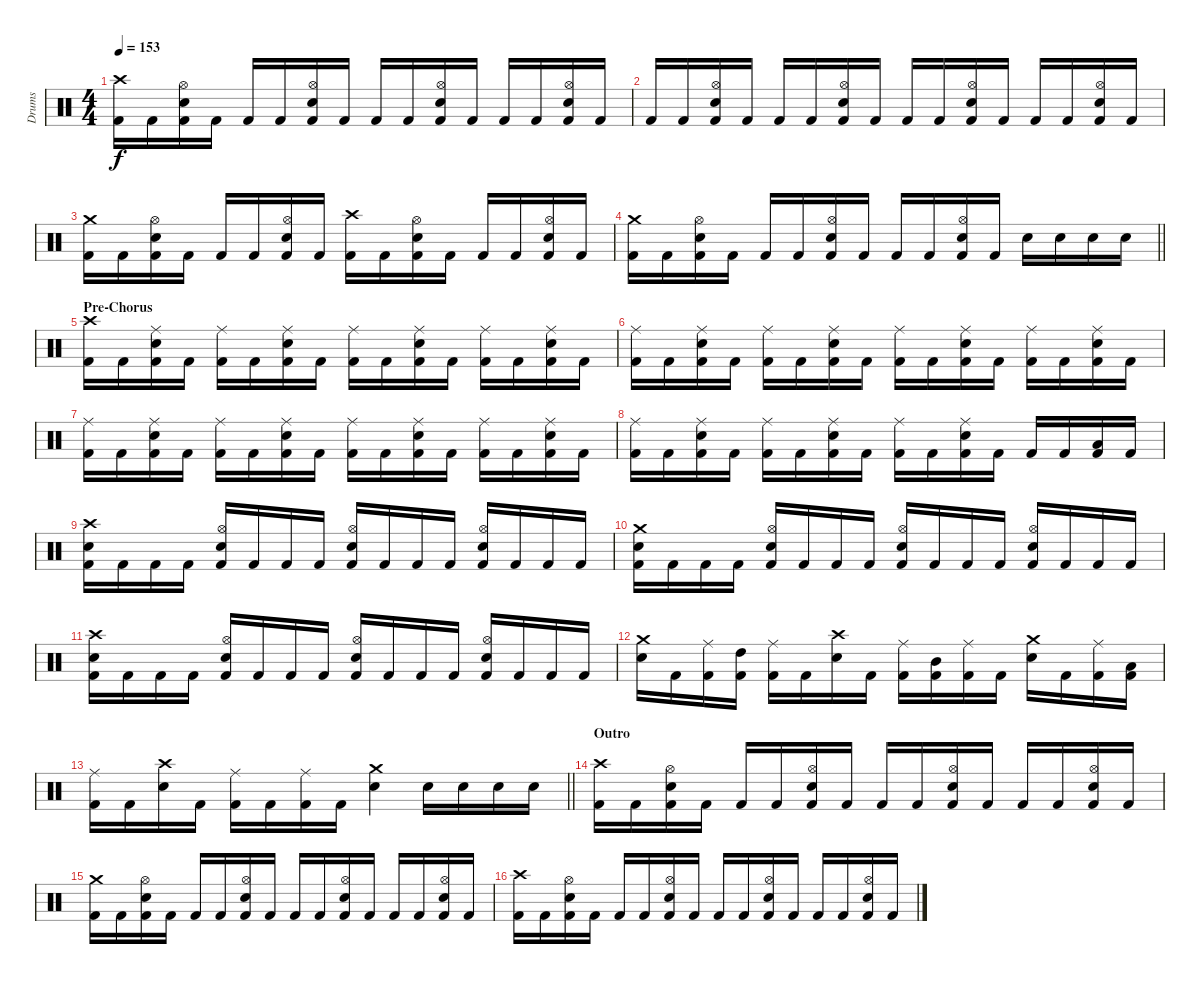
\track ("Drums" "Drums") {instrument percussion}
\staff {score}
\articulation defaults
\ts (4 4)
\tempo 153
\clef neutral
\ks c
("Crash high (hit)" "Kick (hit) 2").16{dy f} "Kick (hit) 2".16 ("Hi-Hat (open)" "Snare (hit) 2" "Kick (hit) 2").16 "Kick (hit) 2".16 "Kick (hit) 2".16 "Kick (hit) 2".16 ("Hi-Hat (open)" "Snare (hit) 2" "Kick (hit) 2").16 "Kick (hit) 2".16 "Kick (hit) 2".16 "Kick (hit) 2".16 ("Hi-Hat (open)" "Snare (hit) 2" "Kick (hit) 2").16 "Kick (hit) 2".16 "Kick (hit) 2".16 "Kick (hit) 2".16 ("Hi-Hat (open)" "Snare (hit) 2" "Kick (hit) 2").16 "Kick (hit) 2".16 |
"Kick (hit) 2".16 "Kick (hit) 2".16 ("Hi-Hat (open)" "Snare (hit) 2" "Kick (hit) 2").16 "Kick (hit) 2".16 "Kick (hit) 2".16 "Kick (hit) 2".16 ("Hi-Hat (open)" "Snare (hit) 2" "Kick (hit) 2").16 "Kick (hit) 2".16 "Kick (hit) 2".16 "Kick (hit) 2".16 ("Hi-Hat (open)" "Snare (hit) 2" "Kick (hit) 2").16 "Kick (hit) 2".16 "Kick (hit) 2".16 "Kick (hit) 2".16 ("Hi-Hat (open)" "Snare (hit) 2" "Kick (hit) 2").16 "Kick (hit) 2".16 |
("Crash medium (hit)" "Kick (hit) 2").16 "Kick (hit) 2".16 ("Hi-Hat (open)" "Snare (hit) 2" "Kick (hit) 2").16 "Kick (hit) 2".16 "Kick (hit) 2".16 "Kick (hit) 2".16 ("Hi-Hat (open)" "Snare (hit) 2" "Kick (hit) 2").16 "Kick (hit) 2".16 ("Crash high (hit)" "Kick (hit) 2").16 "Kick (hit) 2".16 ("Hi-Hat (open)" "Snare (hit) 2" "Kick (hit) 2").16 "Kick (hit) 2".16 "Kick (hit) 2".16 "Kick (hit) 2".16 ("Hi-Hat (open)" "Snare (hit) 2" "Kick (hit) 2").16 "Kick (hit) 2".16 |
\barLineRight lightlight
("Crash medium (hit)" "Kick (hit) 2").16 "Kick (hit) 2".16 ("Hi-Hat (open)" "Snare (hit) 2" "Kick (hit) 2").16 "Kick (hit) 2".16 "Kick (hit) 2".16 "Kick (hit) 2".16 ("Hi-Hat (open)" "Snare (hit) 2" "Kick (hit) 2").16 "Kick (hit) 2".16 "Kick (hit) 2".16 "Kick (hit) 2".16 ("Hi-Hat (open)" "Snare (hit) 2" "Kick (hit) 2").16 "Kick (hit) 2".16 "Snare (hit) 2".16 "Snare (hit) 2".16 "Snare (hit) 2".16 "Snare (hit) 2".16 |
\section ("" "Pre-Chorus")
("Crash high (hit)" "Kick (hit) 2").16 "Kick (hit) 2".16 ("Ride (middle)" "Snare (hit) 2" "Kick (hit) 2").16 "Kick (hit) 2".16 ("Ride (middle)" "Kick (hit) 2").16 "Kick (hit) 2".16 ("Ride (middle)" "Snare (hit) 2" "Kick (hit) 2").16 "Kick (hit) 2".16 ("Ride (middle)" "Kick (hit) 2").16 "Kick (hit) 2".16 ("Ride (middle)" "Snare (hit) 2" "Kick (hit) 2").16 "Kick (hit) 2".16 ("Ride (middle)" "Kick (hit) 2").16 "Kick (hit) 2".16 ("Ride (middle)" "Snare (hit) 2" "Kick (hit) 2").16 "Kick (hit) 2".16 |
("Ride (middle)" "Kick (hit) 2").16 "Kick (hit) 2".16 ("Ride (middle)" "Snare (hit) 2" "Kick (hit) 2").16 "Kick (hit) 2".16 ("Ride (middle)" "Kick (hit) 2").16 "Kick (hit) 2".16 ("Ride (middle)" "Snare (hit) 2" "Kick (hit) 2").16 "Kick (hit) 2".16 ("Ride (middle)" "Kick (hit) 2").16 "Kick (hit) 2".16 ("Ride (middle)" "Snare (hit) 2" "Kick (hit) 2").16 "Kick (hit) 2".16 ("Ride (middle)" "Kick (hit) 2").16 "Kick (hit) 2".16 ("Ride (middle)" "Snare (hit) 2" "Kick (hit) 2").16 "Kick (hit) 2".16 |
("Ride (middle)" "Kick (hit) 2").16 "Kick (hit) 2".16 ("Ride (middle)" "Snare (hit) 2" "Kick (hit) 2").16 "Kick (hit) 2".16 ("Ride (middle)" "Kick (hit) 2").16 "Kick (hit) 2".16 ("Ride (middle)" "Snare (hit) 2" "Kick (hit) 2").16 "Kick (hit) 2".16 ("Ride (middle)" "Kick (hit) 2").16 "Kick (hit) 2".16 ("Ride (middle)" "Snare (hit) 2" "Kick (hit) 2").16 "Kick (hit) 2".16 ("Ride (middle)" "Kick (hit) 2").16 "Kick (hit) 2".16 ("Ride (middle)" "Snare (hit) 2" "Kick (hit) 2").16 "Kick (hit) 2".16 |
("Ride (middle)" "Kick (hit) 2").16 "Kick (hit) 2".16 ("Ride (middle)" "Snare (hit) 2" "Kick (hit) 2").16 "Kick (hit) 2".16 ("Ride (middle)" "Kick (hit) 2").16 "Kick (hit) 2".16 ("Ride (middle)" "Snare (hit) 2" "Kick (hit) 2").16 "Kick (hit) 2".16 ("Ride (middle)" "Kick (hit) 2").16 "Kick (hit) 2".16 ("Ride (middle)" "Snare (hit) 2" "Kick (hit) 2").16 "Kick (hit) 2".16 "Kick (hit) 2".16 "Kick (hit) 2".16 ("Low Tom (hit)" "Kick (hit) 2").16 "Kick (hit) 2".16 |
("Crash high (hit)" "Snare (hit) 2" "Kick (hit) 2").16 "Kick (hit) 2".16 "Kick (hit) 2".16 "Kick (hit) 2".16 ("Hi-Hat (open)" "Snare (hit) 2" "Kick (hit) 2").16 "Kick (hit) 2".16 "Kick (hit) 2".16 "Kick (hit) 2".16 ("Hi-Hat (open)" "Snare (hit) 2" "Kick (hit) 2").16 "Kick (hit) 2".16 "Kick (hit) 2".16 "Kick (hit) 2".16 ("Hi-Hat (open)" "Snare (hit) 2" "Kick (hit) 2").16 "Kick (hit) 2".16 "Kick (hit) 2".16 "Kick (hit) 2".16 |
("Crash medium (hit)" "Snare (hit) 2" "Kick (hit) 2").16 "Kick (hit) 2".16 "Kick (hit) 2".16 "Kick (hit) 2".16 ("Hi-Hat (open)" "Snare (hit) 2" "Kick (hit) 2").16 "Kick (hit) 2".16 "Kick (hit) 2".16 "Kick (hit) 2".16 ("Hi-Hat (open)" "Snare (hit) 2" "Kick (hit) 2").16 "Kick (hit) 2".16 "Kick (hit) 2".16 "Kick (hit) 2".16 ("Hi-Hat (open)" "Snare (hit) 2" "Kick (hit) 2").16 "Kick (hit) 2".16 "Kick (hit) 2".16 "Kick (hit) 2".16 |
("Crash high (hit)" "Snare (hit) 2" "Kick (hit) 2").16 "Kick (hit) 2".16 "Kick (hit) 2".16 "Kick (hit) 2".16 ("Hi-Hat (open)" "Snare (hit) 2" "Kick (hit) 2").16 "Kick (hit) 2".16 "Kick (hit) 2".16 "Kick (hit) 2".16 ("Hi-Hat (open)" "Snare (hit) 2" "Kick (hit) 2").16 "Kick (hit) 2".16 "Kick (hit) 2".16 "Kick (hit) 2".16 ("Hi-Hat (open)" "Snare (hit) 2" "Kick (hit) 2").16 "Kick (hit) 2".16 "Kick (hit) 2".16 "Kick (hit) 2".16 |
("Crash medium (hit)" "Snare (hit) 2").16 "Kick (hit) 2".16 ("Ride (middle)" "Kick (hit) 2").16 ("High Tom (hit)" "Kick (hit) 2").16 ("Ride (middle)" "Kick (hit) 2").16 "Kick (hit) 2".16 ("Crash high (hit)" "Snare (hit) 2").16 "Kick (hit) 2".16 ("Ride (middle)" "Kick (hit) 2").16 ("Mid Tom (hit)" "Kick (hit) 2").16 ("Ride (middle)" "Kick (hit) 2").16 "Kick (hit) 2".16 ("Crash medium (hit)" "Snare (hit) 2").16 "Kick (hit) 2".16 ("Ride (middle)" "Kick (hit) 2").16 ("Low Tom (hit)" "Kick (hit) 2").16 |
\barLineRight lightlight
("Ride (middle)" "Kick (hit) 2").16 "Kick (hit) 2".16 ("Crash high (hit)" "Snare (hit) 2").16 "Kick (hit) 2".16 ("Ride (middle)" "Kick (hit) 2").16 "Kick (hit) 2".16 ("Ride (middle)" "Kick (hit) 2").16 "Kick (hit) 2".16 ("Crash medium (hit)" "Snare (hit) 2").4 "Snare (hit) 2".16 "Snare (hit) 2".16 "Snare (hit) 2".16 "Snare (hit) 2".16 |
\section ("" "Outro")
("Crash high (hit)" "Kick (hit) 2").16 "Kick (hit) 2".16 ("Hi-Hat (open)" "Snare (hit) 2" "Kick (hit) 2").16 "Kick (hit) 2".16 "Kick (hit) 2".16 "Kick (hit) 2".16 ("Hi-Hat (open)" "Snare (hit) 2" "Kick (hit) 2").16 "Kick (hit) 2".16 "Kick (hit) 2".16 "Kick (hit) 2".16 ("Hi-Hat (open)" "Snare (hit) 2" "Kick (hit) 2").16 "Kick (hit) 2".16 "Kick (hit) 2".16 "Kick (hit) 2".16 ("Hi-Hat (open)" "Snare (hit) 2" "Kick (hit) 2").16 "Kick (hit) 2".16 |
("Crash medium (hit)" "Kick (hit) 2").16 "Kick (hit) 2".16 ("Hi-Hat (open)" "Snare (hit) 2" "Kick (hit) 2").16 "Kick (hit) 2".16 "Kick (hit) 2".16 "Kick (hit) 2".16 ("Hi-Hat (open)" "Snare (hit) 2" "Kick (hit) 2").16 "Kick (hit) 2".16 "Kick (hit) 2".16 "Kick (hit) 2".16 ("Hi-Hat (open)" "Snare (hit) 2" "Kick (hit) 2").16 "Kick (hit) 2".16 "Kick (hit) 2".16 "Kick (hit) 2".16 ("Hi-Hat (open)" "Snare (hit) 2" "Kick (hit) 2").16 "Kick (hit) 2".16 |
("Crash high (hit)" "Kick (hit) 2").16 "Kick (hit) 2".16 ("Hi-Hat (open)" "Snare (hit) 2" "Kick (hit) 2").16 "Kick (hit) 2".16 "Kick (hit) 2".16 "Kick (hit) 2".16 ("Hi-Hat (open)" "Snare (hit) 2" "Kick (hit) 2").16 "Kick (hit) 2".16 "Kick (hit) 2".16 "Kick (hit) 2".16 ("Hi-Hat (open)" "Snare (hit) 2" "Kick (hit) 2").16 "Kick (hit) 2".16 "Kick (hit) 2".16 "Kick (hit) 2".16 ("Hi-Hat (open)" "Snare (hit) 2" "Kick (hit) 2").16 "Kick (hit) 2".16
